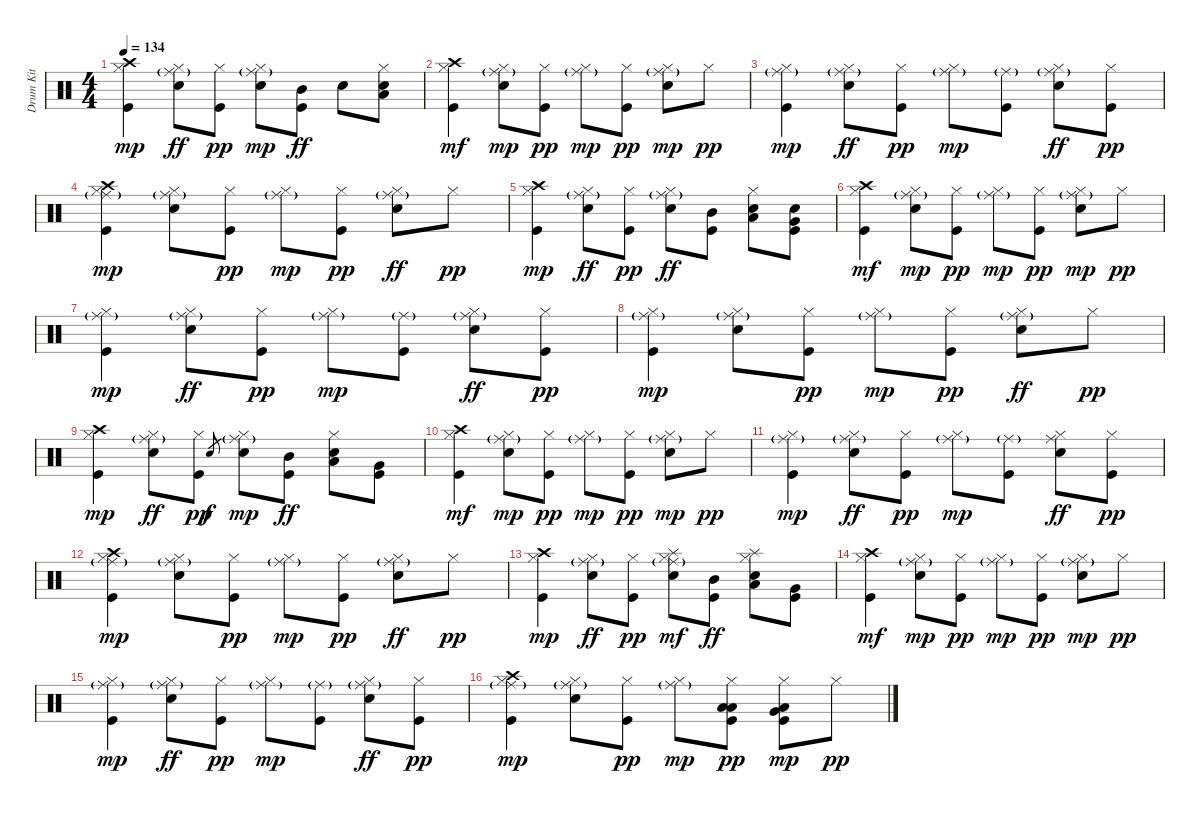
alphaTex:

\track ("Drum Kit" "Drum Kit") {instrument percussion}
\staff {score}
\articulation defaults
\ts (4 4)
\tempo 134
\clef neutral
\ks c
("Crash high (hit)" "Hi-Hat (closed)" "Kick (hit)").4{dy mp} ("Ride (middle)"{g} "Hi-Hat (closed)" "Electric Snare (hit)").8{dy ff} ("Hi-Hat (closed)" "Kick (hit)").8{dy pp} ("Electric Snare (hit)" "Ride (middle)"{g} "Hi-Hat (closed)").8{dy mp} ("Mid Tom (hit)" "Kick (hit)").8{dy ff} "Electric Snare (hit)".8 ("Electric Snare (hit)" "Hi-Hat (closed)" "Low Tom (hit)").8 |
("Kick (hit)" "Hi-Hat (closed)" "Crash high (hit)").4{dy mf} ("Hi-Hat (closed)" "Electric Snare (hit)" "Ride (middle)"{g}).8{dy mp} ("Kick (hit)" "Hi-Hat (closed)").8{dy pp} ("Hi-Hat (closed)" "Ride (middle)"{g}).8{dy mp} ("Hi-Hat (closed)" "Kick (hit)").8{dy pp} ("Hi-Hat (closed)" "Electric Snare (hit)" "Ride (middle)"{g}).8{dy mp} "Hi-Hat (closed)".8{dy pp} |
("Ride (middle)"{g} "Hi-Hat (closed)" "Kick (hit)").4{dy mp} ("Ride (middle)"{g} "Hi-Hat (closed)" "Electric Snare (hit)").8{dy ff} ("Hi-Hat (closed)" "Kick (hit)").8{dy pp} ("Ride (middle)"{g} "Hi-Hat (closed)").8{dy mp} ("Kick (hit)" "Ride (middle)"{g}).8 ("Ride (middle)"{g} "Hi-Hat (closed)" "Electric Snare (hit)").8{dy ff} ("Hi-Hat (closed)" "Kick (hit)").8{dy pp} |
("Crash high (hit)" "Ride (middle)"{g} "Kick (hit)" "Hi-Hat (closed)").4{dy mp} ("Hi-Hat (closed)" "Electric Snare (hit)" "Ride (middle)"{g}).8 ("Kick (hit)" "Hi-Hat (closed)").8{dy pp} ("Hi-Hat (closed)" "Ride (middle)"{g}).8{dy mp} ("Hi-Hat (closed)" "Kick (hit)").8{dy pp} ("Ride (middle)"{g} "Hi-Hat (closed)" "Electric Snare (hit)").8{dy ff} "Hi-Hat (closed)".8{dy pp} |
("Crash high (hit)" "Hi-Hat (closed)" "Kick (hit)").4{dy mp} ("Ride (middle)"{g} "Hi-Hat (closed)" "Electric Snare (hit)").8{dy ff} ("Hi-Hat (closed)" "Kick (hit)").8{dy pp} ("Ride (middle)"{g} "Hi-Hat (closed)" "Electric Snare (hit)").8{dy ff} ("Mid Tom (hit)" "Kick (hit)").8 ("Low Tom (hit)" "Hi-Hat (closed)" "Electric Snare (hit)").8 ("Kick (hit)" "Electric Snare (hit)" "Very Low Tom (hit)").8 |
("Kick (hit)" "Hi-Hat (closed)" "Crash high (hit)").4{dy mf} ("Hi-Hat (closed)" "Electric Snare (hit)" "Ride (middle)"{g}).8{dy mp} ("Kick (hit)" "Hi-Hat (closed)").8{dy pp} ("Hi-Hat (closed)" "Ride (middle)"{g}).8{dy mp} ("Hi-Hat (closed)" "Kick (hit)").8{dy pp} ("Hi-Hat (closed)" "Electric Snare (hit)" "Ride (middle)"{g}).8{dy mp} "Hi-Hat (closed)".8{dy pp} |
("Ride (middle)"{g} "Hi-Hat (closed)" "Kick (hit)").4{dy mp} ("Ride (middle)"{g} "Hi-Hat (closed)" "Electric Snare (hit)").8{dy ff} ("Hi-Hat (closed)" "Kick (hit)").8{dy pp} ("Ride (middle)"{g} "Hi-Hat (closed)").8{dy mp} ("Kick (hit)" "Ride (middle)"{g}).8 ("Ride (middle)"{g} "Hi-Hat (closed)" "Electric Snare (hit)").8{dy ff} ("Hi-Hat (closed)" "Kick (hit)").8{dy pp} |
("Ride (middle)"{g} "Kick (hit)" "Hi-Hat (closed)").4{dy mp} ("Hi-Hat (closed)" "Electric Snare (hit)" "Ride (middle)"{g}).8 ("Kick (hit)" "Hi-Hat (closed)").8{dy pp} ("Hi-Hat (closed)" "Ride (middle)"{g}).8{dy mp} ("Hi-Hat (closed)" "Kick (hit)").8{dy pp} ("Ride (middle)"{g} "Hi-Hat (closed)" "Electric Snare (hit)").8{dy ff} "Hi-Hat (closed)".8{dy pp} |
("Crash high (hit)" "Hi-Hat (closed)" "Kick (hit)").4{dy mp} ("Ride (middle)"{g} "Hi-Hat (closed)" "Electric Snare (hit)").8{dy ff} ("Hi-Hat (closed)" "Kick (hit)").8{dy pp} "Electric Snare (hit)".8{gr dy f} ("Ride (middle)"{g} "Hi-Hat (closed)" "Electric Snare (hit)").8{dy mp} ("Mid Tom (hit)" "Kick (hit)").8{dy ff} ("Electric Snare (hit)" "Hi-Hat (closed)" "Low Tom (hit)").8 ("Very Low Tom (hit)" "Kick (hit)").8 |
("Kick (hit)" "Hi-Hat (closed)" "Crash high (hit)").4{dy mf} ("Hi-Hat (closed)" "Electric Snare (hit)" "Ride (middle)"{g}).8{dy mp} ("Kick (hit)" "Hi-Hat (closed)").8{dy pp} ("Hi-Hat (closed)" "Ride (middle)"{g}).8{dy mp} ("Hi-Hat (closed)" "Kick (hit)").8{dy pp} ("Hi-Hat (closed)" "Electric Snare (hit)" "Ride (middle)"{g}).8{dy mp} "Hi-Hat (closed)".8{dy pp} |
("Ride (middle)"{g} "Hi-Hat (closed)" "Kick (hit)").4{dy mp} ("Ride (middle)"{g} "Hi-Hat (closed)" "Electric Snare (hit)").8{dy ff} ("Hi-Hat (closed)" "Kick (hit)").8{dy pp} ("Ride (middle)"{g} "Hi-Hat (closed)").8{dy mp} ("Kick (hit)" "Ride (middle)"{g}).8 ("Ride (middle)" "Hi-Hat (closed)" "Electric Snare (hit)").8{dy ff} ("Hi-Hat (closed)" "Kick (hit)").8{dy pp} |
("Crash high (hit)" "Ride (middle)"{g} "Kick (hit)" "Hi-Hat (closed)").4{dy mp} ("Hi-Hat (closed)" "Electric Snare (hit)" "Ride (middle)"{g}).8 ("Kick (hit)" "Hi-Hat (closed)").8{dy pp} ("Hi-Hat (closed)" "Ride (middle)"{g}).8{dy mp} ("Hi-Hat (closed)" "Kick (hit)").8{dy pp} ("Ride (middle)"{g} "Hi-Hat (closed)" "Electric Snare (hit)").8{dy ff} "Hi-Hat (closed)".8{dy pp} |
("Crash high (hit)" "Hi-Hat (closed)" "Kick (hit)").4{dy mp} ("Ride (middle)"{g} "Hi-Hat (closed)" "Electric Snare (hit)").8{dy ff} ("Hi-Hat (closed)" "Kick (hit)").8{dy pp} ("Ride (middle)"{g} "Hi-Hat (closed)" "Electric Snare (hit)" "Splash (hit)").8{dy mf} ("Mid Tom (hit)" "Kick (hit)").8{dy ff} ("Splash (hit)" "Low Tom (hit)" "Hi-Hat (closed)" "Electric Snare (hit)").8 ("Kick (hit)" "Very Low Tom (hit)").8 |
("Kick (hit)" "Hi-Hat (closed)" "Crash high (hit)").4{dy mf} ("Hi-Hat (closed)" "Electric Snare (hit)" "Ride (middle)"{g}).8{dy mp} ("Kick (hit)" "Hi-Hat (closed)").8{dy pp} ("Hi-Hat (closed)" "Ride (middle)"{g}).8{dy mp} ("Hi-Hat (closed)" "Kick (hit)").8{dy pp} ("Hi-Hat (closed)" "Electric Snare (hit)" "Ride (middle)"{g}).8{dy mp} "Hi-Hat (closed)".8{dy pp} |
("Ride (middle)"{g} "Hi-Hat (closed)" "Kick (hit)").4{dy mp} ("Ride (middle)"{g} "Hi-Hat (closed)" "Electric Snare (hit)").8{dy ff} ("Hi-Hat (closed)" "Kick (hit)").8{dy pp} ("Ride (middle)"{g} "Hi-Hat (closed)").8{dy mp} ("Kick (hit)" "Ride (middle)"{g}).8 ("Ride (middle)"{g} "Hi-Hat (closed)" "Electric Snare (hit)").8{dy ff} ("Hi-Hat (closed)" "Kick (hit)").8{dy pp} |
("Crash high (hit)" "Ride (middle)"{g} "Kick (hit)" "Hi-Hat (closed)").4{dy mp} ("Hi-Hat (closed)" "Electric Snare (hit)" "Ride (middle)"{g}).8 ("Kick (hit)" "Hi-Hat (closed)").8{dy pp} ("Hi-Hat (closed)" "Ride (middle)"{g}).8{dy mp} ("Low Tom (hit)" "Low Floor Tom (hit)" "Hi-Hat (closed)" "Kick (hit)").8{dy pp} ("Very Low Tom (hit)" "Low Floor Tom (hit)" "Kick (hit)" "Hi-Hat (closed)").8{dy mp} "Hi-Hat (closed)".8{dy pp}
